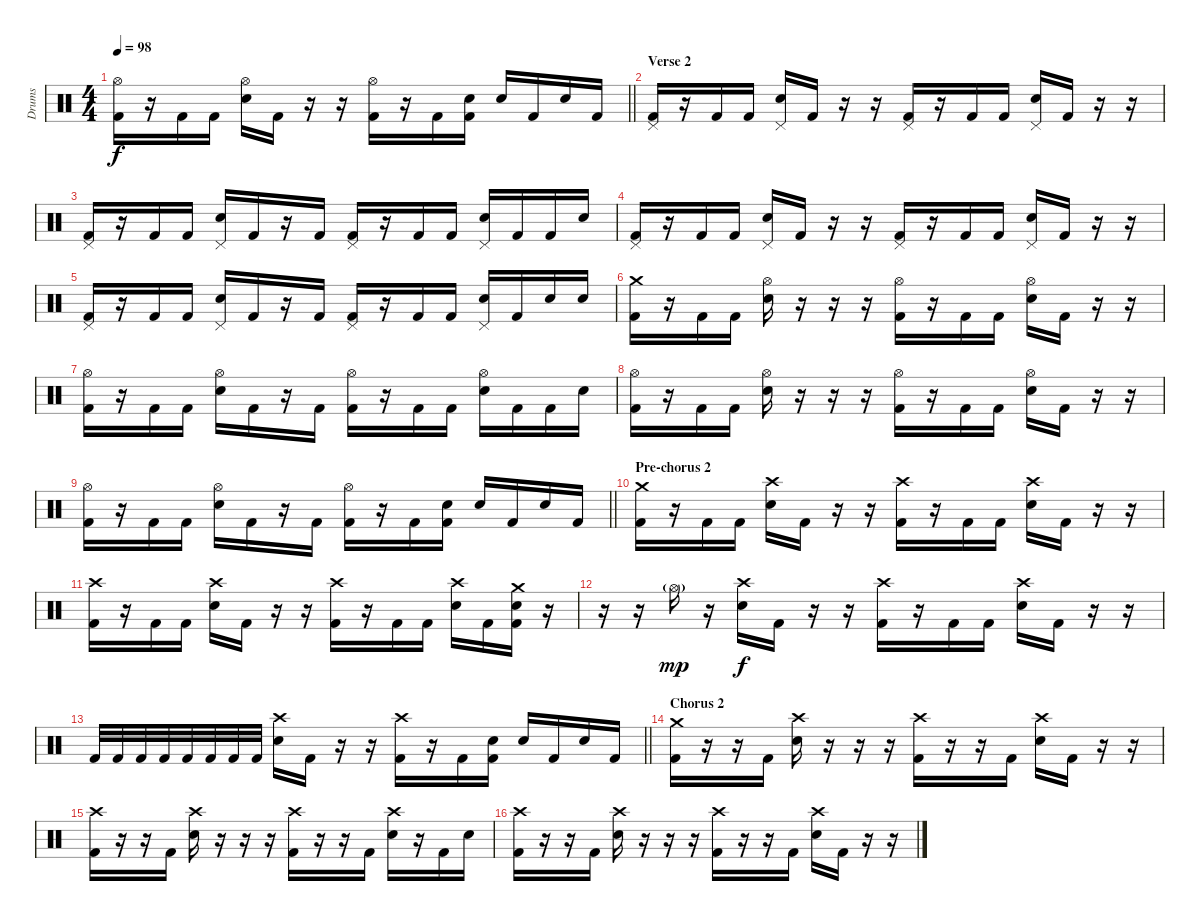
\track ("Drums" "Drums") {instrument percussion}
\staff {score}
\articulation defaults
\ts (4 4)
\tempo 98
\clef neutral
\barLineRight lightlight
\ks c
("Hi-Hat (open)" "Kick (hit) 2").16{dy f} r.16 "Kick (hit) 2".16 "Kick (hit) 2".16 ("Hi-Hat (open)" "Electric Snare (hit)").16 "Kick (hit) 2".16 r.16 r.16 ("Hi-Hat (open)" "Kick (hit) 2").16 r.16 "Kick (hit) 2".16 ("Electric Snare (hit)" "Kick (hit) 2").16 "Electric Snare (hit)".16 "Kick (hit) 2".16 "Electric Snare (hit)".16 "Kick (hit) 2".16 |
\section ("" "Verse 2")
("Pedal Hi-Hat (hit)" "Kick (hit) 2").16 r.16 "Kick (hit) 2".16 "Kick (hit) 2".16 ("Pedal Hi-Hat (hit)" "Electric Snare (hit)").16 "Kick (hit) 2".16 r.16 r.16 ("Pedal Hi-Hat (hit)" "Kick (hit) 2").16 r.16 "Kick (hit) 2".16 "Kick (hit) 2".16 ("Pedal Hi-Hat (hit)" "Electric Snare (hit)").16 "Kick (hit) 2".16 r.16 r.16 |
("Pedal Hi-Hat (hit)" "Kick (hit) 2").16 r.16 "Kick (hit) 2".16 "Kick (hit) 2".16 ("Pedal Hi-Hat (hit)" "Electric Snare (hit)").16 "Kick (hit) 2".16 r.16 "Kick (hit) 2".16 ("Pedal Hi-Hat (hit)" "Kick (hit) 2").16 r.16 "Kick (hit) 2".16 "Kick (hit) 2".16 ("Pedal Hi-Hat (hit)" "Electric Snare (hit)").16 "Kick (hit) 2".16 "Kick (hit) 2".16 "Electric Snare (hit)".16 |
("Pedal Hi-Hat (hit)" "Kick (hit) 2").16 r.16 "Kick (hit) 2".16 "Kick (hit) 2".16 ("Pedal Hi-Hat (hit)" "Electric Snare (hit)").16 "Kick (hit) 2".16 r.16 r.16 ("Pedal Hi-Hat (hit)" "Kick (hit) 2").16 r.16 "Kick (hit) 2".16 "Kick (hit) 2".16 ("Pedal Hi-Hat (hit)" "Electric Snare (hit)").16 "Kick (hit) 2".16 r.16 r.16 |
("Pedal Hi-Hat (hit)" "Kick (hit) 2").16 r.16 "Kick (hit) 2".16 "Kick (hit) 2".16 ("Pedal Hi-Hat (hit)" "Electric Snare (hit)").16 "Kick (hit) 2".16 r.16 "Kick (hit) 2".16 ("Pedal Hi-Hat (hit)" "Kick (hit) 2").16 r.16 "Kick (hit) 2".16 "Kick (hit) 2".16 ("Pedal Hi-Hat (hit)" "Electric Snare (hit)").16 "Kick (hit) 2".16 "Electric Snare (hit)".16 "Electric Snare (hit)".16 |
("Crash medium (hit)" "Kick (hit) 2").16 r.16 "Kick (hit) 2".16 "Kick (hit) 2".16 ("Hi-Hat (open)" "Electric Snare (hit)").16 r.16 r.16 r.16 ("Hi-Hat (open)" "Kick (hit) 2").16 r.16 "Kick (hit) 2".16 "Kick (hit) 2".16 ("Hi-Hat (open)" "Electric Snare (hit)").16 "Kick (hit) 2".16 r.16 r.16 |
("Hi-Hat (open)" "Kick (hit) 2").16 r.16 "Kick (hit) 2".16 "Kick (hit) 2".16 ("Hi-Hat (open)" "Electric Snare (hit)").16 "Kick (hit) 2".16 r.16 "Kick (hit) 2".16 ("Hi-Hat (open)" "Kick (hit) 2").16 r.16 "Kick (hit) 2".16 "Kick (hit) 2".16 ("Hi-Hat (open)" "Electric Snare (hit)").16 "Kick (hit) 2".16 "Kick (hit) 2".16 "Electric Snare (hit)".16 |
("Hi-Hat (open)" "Kick (hit) 2").16 r.16 "Kick (hit) 2".16 "Kick (hit) 2".16 ("Hi-Hat (open)" "Electric Snare (hit)").16 r.16 r.16 r.16 ("Hi-Hat (open)" "Kick (hit) 2").16 r.16 "Kick (hit) 2".16 "Kick (hit) 2".16 ("Hi-Hat (open)" "Electric Snare (hit)").16 "Kick (hit) 2".16 r.16 r.16 |
\barLineRight lightlight
("Hi-Hat (open)" "Kick (hit) 2").16 r.16 "Kick (hit) 2".16 "Kick (hit) 2".16 ("Hi-Hat (open)" "Electric Snare (hit)").16 "Kick (hit) 2".16 r.16 "Kick (hit) 2".16 ("Hi-Hat (open)" "Kick (hit) 2").16 r.16 "Kick (hit) 2".16 ("Electric Snare (hit)" "Kick (hit) 2").16 "Electric Snare (hit)".16 "Kick (hit) 2".16 "Electric Snare (hit)".16 "Kick (hit) 2".16 |
\section ("" "Pre-chorus 2")
("Crash medium (hit)" "Kick (hit) 2").16 r.16 "Kick (hit) 2".16 "Kick (hit) 2".16 ("Crash high (hit)" "Electric Snare (hit)").16 "Kick (hit) 2".16 r.16 r.16 ("Crash high (hit)" "Kick (hit) 2").16 r.16 "Kick (hit) 2".16 "Kick (hit) 2".16 ("Crash high (hit)" "Electric Snare (hit)").16 "Kick (hit) 2".16 r.16 r.16 |
("Crash high (hit)" "Kick (hit) 2").16 r.16 "Kick (hit) 2".16 "Kick (hit) 2".16 ("Crash high (hit)" "Electric Snare (hit)").16 "Kick (hit) 2".16 r.16 r.16 ("Crash high (hit)" "Kick (hit) 2").16 r.16 "Kick (hit) 2".16 "Kick (hit) 2".16 ("Crash high (hit)" "Electric Snare (hit)").16 "Kick (hit) 2".16 ("Crash medium (hit)" "Electric Snare (hit)" "Kick (hit) 2").16 r.16 |
r.16 r.16 "Hi-Hat (open)"{g}.16{dy mp} r.16 ("Crash high (hit)" "Electric Snare (hit)").16{dy f} "Kick (hit) 2".16 r.16 r.16 ("Crash high (hit)" "Kick (hit) 2").16 r.16 "Kick (hit) 2".16 "Kick (hit) 2".16 ("Crash high (hit)" "Electric Snare (hit)").16 "Kick (hit) 2".16 r.16 r.16 |
\barLineRight lightlight "Kick (hit) 2".32 "Kick (hit) 2".32 "Kick (hit) 2".32 "Kick (hit) 2".32 "Kick (hit) 2".32 "Kick (hit) 2".32 "Kick (hit) 2".32 "Kick (hit) 2".32
("Crash high (hit)" "Electric Snare (hit)").16 "Kick (hit) 2".16 r.16 r.16 ("Crash high (hit)" "Kick (hit) 2").16 r.16 "Kick (hit) 2".16 ("Electric Snare (hit)" "Kick (hit) 2").16 "Electric Snare (hit)".16 "Kick (hit) 2".16 "Electric Snare (hit)".16 "Kick (hit) 2".16 |
\section ("" "Chorus 2")
("Crash medium (hit)" "Kick (hit) 2").16 r.16 r.16 "Kick (hit) 2".16 ("Crash high (hit)" "Electric Snare (hit)").16 r.16 r.16 r.16 ("Crash high (hit)" "Kick (hit) 2").16 r.16 r.16 "Kick (hit) 2".16 ("Crash high (hit)" "Electric Snare (hit)").16 "Kick (hit) 2".16 r.16 r.16 |
("Crash high (hit)" "Kick (hit) 2").16 r.16 r.16 "Kick (hit) 2".16 ("Crash high (hit)" "Electric Snare (hit)").16 r.16 r.16 r.16 ("Crash high (hit)" "Kick (hit) 2").16 r.16 r.16 "Kick (hit) 2".16 ("Crash high (hit)" "Electric Snare (hit)").16 r.16 "Kick (hit) 2".16 "Electric Snare (hit)".16 |
("Crash high (hit)" "Kick (hit) 2").16 r.16 r.16 "Kick (hit) 2".16 ("Crash high (hit)" "Electric Snare (hit)").16 r.16 r.16 r.16 ("Crash high (hit)" "Kick (hit) 2").16 r.16 r.16 "Kick (hit) 2".16 ("Crash high (hit)" "Electric Snare (hit)").16 "Kick (hit) 2".16 r.16 r.16
